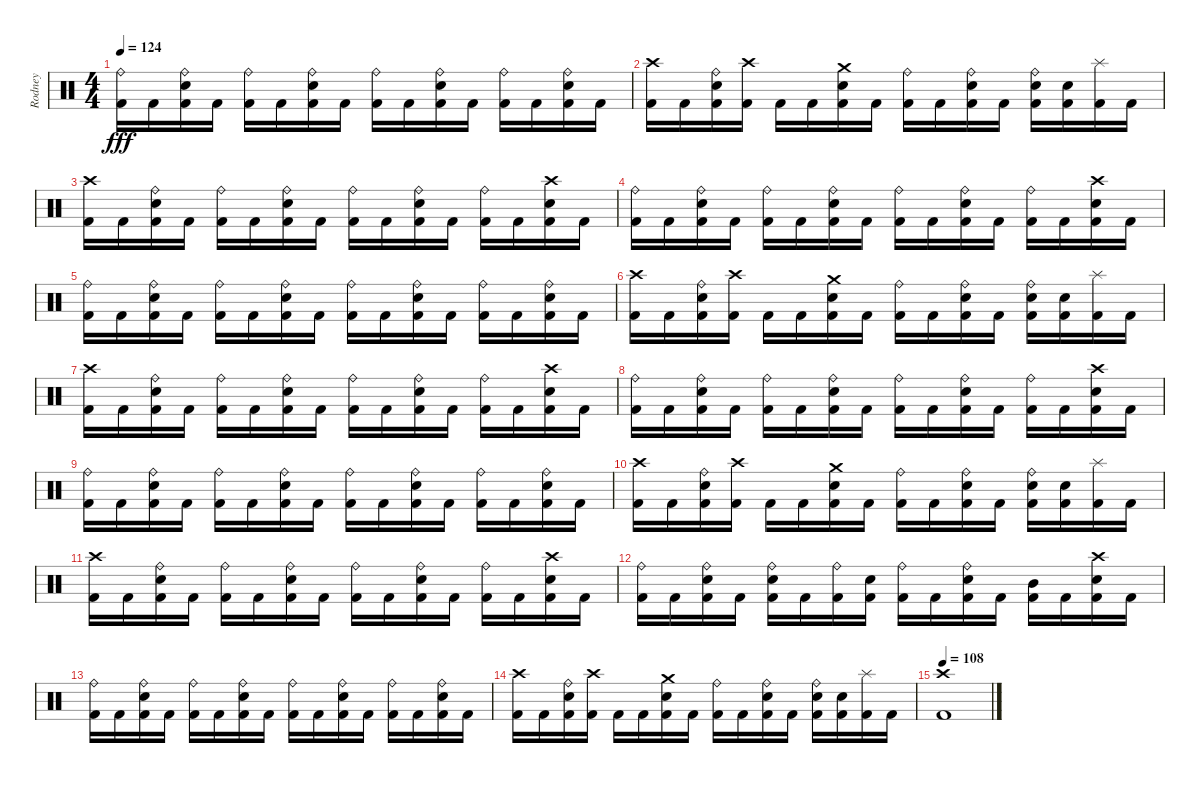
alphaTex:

\track ("Rodney" "Rodney") {instrument percussion}
\staff {score}
\articulation defaults
\ts (4 4)
\tempo 124
\clef neutral
\ks c
("Ride (bell)" "Kick (hit) 2").16{dy fff} "Kick (hit) 2".16 ("Ride (bell)" "Snare (hit) 2" "Kick (hit) 2").16 "Kick (hit) 2".16 ("Ride (bell)" "Kick (hit) 2").16 "Kick (hit) 2".16 ("Ride (bell)" "Snare (hit) 2" "Kick (hit) 2").16 "Kick (hit) 2".16 ("Ride (bell)" "Kick (hit) 2").16 "Kick (hit) 2".16 ("Ride (bell)" "Snare (hit) 2" "Kick (hit) 2").16 "Kick (hit) 2".16 ("Ride (bell)" "Kick (hit) 2").16 "Kick (hit) 2".16 ("Ride (bell)" "Snare (hit) 2" "Kick (hit) 2").16 "Kick (hit) 2".16 |
("Crash high (hit)" "Kick (hit) 2").16 "Kick (hit) 2".16 ("Ride (bell)" "Snare (hit) 2" "Kick (hit) 2").16 ("Crash high (hit)" "Kick (hit) 2").16 "Kick (hit) 2".16 "Kick (hit) 2".16 ("Crash medium (hit)" "Snare (hit) 2" "Kick (hit) 2").16 "Kick (hit) 2".16 ("Ride (bell)" "Kick (hit) 2").16 "Kick (hit) 2".16 ("Ride (bell)" "Snare (hit) 2" "Kick (hit) 2").16 "Kick (hit) 2".16 ("Ride (bell)" "Snare (hit) 2" "Kick (hit) 2").16 ("Snare (hit) 2" "Kick (hit) 2").16 ("Splash (hit)" "Kick (hit) 2").16 "Kick (hit) 2".16 |
("Crash high (hit)" "Kick (hit) 2").16 "Kick (hit) 2".16 ("Ride (bell)" "Snare (hit) 2" "Kick (hit) 2").16 "Kick (hit) 2".16 ("Ride (bell)" "Kick (hit) 2").16 "Kick (hit) 2".16 ("Ride (bell)" "Snare (hit) 2" "Kick (hit) 2").16 "Kick (hit) 2".16 ("Ride (bell)" "Kick (hit) 2").16 "Kick (hit) 2".16 ("Ride (bell)" "Snare (hit) 2" "Kick (hit) 2").16 "Kick (hit) 2".16 ("Ride (bell)" "Kick (hit) 2").16 "Kick (hit) 2".16 ("Crash high (hit)" "Snare (hit) 2" "Kick (hit) 2").16 "Kick (hit) 2".16 |
("Ride (bell)" "Kick (hit) 2").16 "Kick (hit) 2".16 ("Ride (bell)" "Snare (hit) 2" "Kick (hit) 2").16 "Kick (hit) 2".16 ("Ride (bell)" "Kick (hit) 2").16 "Kick (hit) 2".16 ("Ride (bell)" "Snare (hit) 2" "Kick (hit) 2").16 "Kick (hit) 2".16 ("Ride (bell)" "Kick (hit) 2").16 "Kick (hit) 2".16 ("Ride (bell)" "Snare (hit) 2" "Kick (hit) 2").16 "Kick (hit) 2".16 ("Ride (bell)" "Kick (hit) 2").16 "Kick (hit) 2".16 ("Crash high (hit)" "Snare (hit) 2" "Kick (hit) 2").16 "Kick (hit) 2".16 |
("Ride (bell)" "Kick (hit) 2").16 "Kick (hit) 2".16 ("Ride (bell)" "Snare (hit) 2" "Kick (hit) 2").16 "Kick (hit) 2".16 ("Ride (bell)" "Kick (hit) 2").16 "Kick (hit) 2".16 ("Ride (bell)" "Snare (hit) 2" "Kick (hit) 2").16 "Kick (hit) 2".16 ("Ride (bell)" "Kick (hit) 2").16 "Kick (hit) 2".16 ("Ride (bell)" "Snare (hit) 2" "Kick (hit) 2").16 "Kick (hit) 2".16 ("Ride (bell)" "Kick (hit) 2").16 "Kick (hit) 2".16 ("Ride (bell)" "Snare (hit) 2" "Kick (hit) 2").16 "Kick (hit) 2".16 |
("Crash high (hit)" "Kick (hit) 2").16 "Kick (hit) 2".16 ("Ride (bell)" "Snare (hit) 2" "Kick (hit) 2").16 ("Crash high (hit)" "Kick (hit) 2").16 "Kick (hit) 2".16 "Kick (hit) 2".16 ("Crash medium (hit)" "Snare (hit) 2" "Kick (hit) 2").16 "Kick (hit) 2".16 ("Ride (bell)" "Kick (hit) 2").16 "Kick (hit) 2".16 ("Ride (bell)" "Snare (hit) 2" "Kick (hit) 2").16 "Kick (hit) 2".16 ("Ride (bell)" "Snare (hit) 2" "Kick (hit) 2").16 ("Snare (hit) 2" "Kick (hit) 2").16 ("Splash (hit)" "Kick (hit) 2").16 "Kick (hit) 2".16 |
("Crash high (hit)" "Kick (hit) 2").16 "Kick (hit) 2".16 ("Ride (bell)" "Snare (hit) 2" "Kick (hit) 2").16 "Kick (hit) 2".16 ("Ride (bell)" "Kick (hit) 2").16 "Kick (hit) 2".16 ("Ride (bell)" "Snare (hit) 2" "Kick (hit) 2").16 "Kick (hit) 2".16 ("Ride (bell)" "Kick (hit) 2").16 "Kick (hit) 2".16 ("Ride (bell)" "Snare (hit) 2" "Kick (hit) 2").16 "Kick (hit) 2".16 ("Ride (bell)" "Kick (hit) 2").16 "Kick (hit) 2".16 ("Crash high (hit)" "Snare (hit) 2" "Kick (hit) 2").16 "Kick (hit) 2".16 |
("Ride (bell)" "Kick (hit) 2").16 "Kick (hit) 2".16 ("Ride (bell)" "Snare (hit) 2" "Kick (hit) 2").16 "Kick (hit) 2".16 ("Ride (bell)" "Kick (hit) 2").16 "Kick (hit) 2".16 ("Ride (bell)" "Snare (hit) 2" "Kick (hit) 2").16 "Kick (hit) 2".16 ("Ride (bell)" "Kick (hit) 2").16 "Kick (hit) 2".16 ("Ride (bell)" "Snare (hit) 2" "Kick (hit) 2").16 "Kick (hit) 2".16 ("Ride (bell)" "Kick (hit) 2").16 "Kick (hit) 2".16 ("Crash high (hit)" "Snare (hit) 2" "Kick (hit) 2").16 "Kick (hit) 2".16 |
("Ride (bell)" "Kick (hit) 2").16 "Kick (hit) 2".16 ("Ride (bell)" "Snare (hit) 2" "Kick (hit) 2").16 "Kick (hit) 2".16 ("Ride (bell)" "Kick (hit) 2").16 "Kick (hit) 2".16 ("Ride (bell)" "Snare (hit) 2" "Kick (hit) 2").16 "Kick (hit) 2".16 ("Ride (bell)" "Kick (hit) 2").16 "Kick (hit) 2".16 ("Ride (bell)" "Snare (hit) 2" "Kick (hit) 2").16 "Kick (hit) 2".16 ("Ride (bell)" "Kick (hit) 2").16 "Kick (hit) 2".16 ("Ride (bell)" "Snare (hit) 2" "Kick (hit) 2").16 "Kick (hit) 2".16 |
("Crash high (hit)" "Kick (hit) 2").16 "Kick (hit) 2".16 ("Ride (bell)" "Snare (hit) 2" "Kick (hit) 2").16 ("Crash high (hit)" "Kick (hit) 2").16 "Kick (hit) 2".16 "Kick (hit) 2".16 ("Crash medium (hit)" "Snare (hit) 2" "Kick (hit) 2").16 "Kick (hit) 2".16 ("Ride (bell)" "Kick (hit) 2").16 "Kick (hit) 2".16 ("Ride (bell)" "Snare (hit) 2" "Kick (hit) 2").16 "Kick (hit) 2".16 ("Ride (bell)" "Snare (hit) 2" "Kick (hit) 2").16 ("Snare (hit) 2" "Kick (hit) 2").16 ("Splash (hit)" "Kick (hit) 2").16 "Kick (hit) 2".16 |
("Crash high (hit)" "Kick (hit) 2").16 "Kick (hit) 2".16 ("Ride (bell)" "Snare (hit) 2" "Kick (hit) 2").16 "Kick (hit) 2".16 ("Ride (bell)" "Kick (hit) 2").16 "Kick (hit) 2".16 ("Ride (bell)" "Snare (hit) 2" "Kick (hit) 2").16 "Kick (hit) 2".16 ("Ride (bell)" "Kick (hit) 2").16 "Kick (hit) 2".16 ("Ride (bell)" "Snare (hit) 2" "Kick (hit) 2").16 "Kick (hit) 2".16 ("Ride (bell)" "Kick (hit) 2").16 "Kick (hit) 2".16 ("Crash high (hit)" "Snare (hit) 2" "Kick (hit) 2").16 "Kick (hit) 2".16 |
("Ride (bell)" "Kick (hit) 2").16 "Kick (hit) 2".16 ("Ride (bell)" "Snare (hit) 2" "Kick (hit) 2").16 "Kick (hit) 2".16 ("Ride (bell)" "Snare (hit) 2" "Kick (hit) 2").16 "Kick (hit) 2".16 ("Ride (bell)" "Kick (hit) 2").16 ("Snare (hit) 2" "Kick (hit) 2").16 ("Ride (bell)" "Kick (hit) 2").16 "Kick (hit) 2".16 ("Ride (bell)" "Snare (hit) 2" "Kick (hit) 2").16 "Kick (hit) 2".16 ("Mid Tom (hit)" "Kick (hit) 2").16 "Kick (hit) 2".16 ("Crash high (hit)" "Snare (hit) 2" "Kick (hit) 2").16 "Kick (hit) 2".16 |
("Ride (bell)" "Kick (hit) 2").16 "Kick (hit) 2".16 ("Ride (bell)" "Snare (hit) 2" "Kick (hit) 2").16 "Kick (hit) 2".16 ("Ride (bell)" "Kick (hit) 2").16 "Kick (hit) 2".16 ("Ride (bell)" "Snare (hit) 2" "Kick (hit) 2").16 "Kick (hit) 2".16 ("Ride (bell)" "Kick (hit) 2").16 "Kick (hit) 2".16 ("Ride (bell)" "Snare (hit) 2" "Kick (hit) 2").16 "Kick (hit) 2".16 ("Ride (bell)" "Kick (hit) 2").16 "Kick (hit) 2".16 ("Ride (bell)" "Snare (hit) 2" "Kick (hit) 2").16 "Kick (hit) 2".16 |
("Crash high (hit)" "Kick (hit) 2").16 "Kick (hit) 2".16 ("Ride (bell)" "Snare (hit) 2" "Kick (hit) 2").16 ("Crash high (hit)" "Kick (hit) 2").16 "Kick (hit) 2".16 "Kick (hit) 2".16 ("Crash medium (hit)" "Snare (hit) 2" "Kick (hit) 2").16 "Kick (hit) 2".16 ("Ride (bell)" "Kick (hit) 2").16 "Kick (hit) 2".16 ("Ride (bell)" "Snare (hit) 2" "Kick (hit) 2").16 "Kick (hit) 2".16 ("Ride (bell)" "Snare (hit) 2" "Kick (hit) 2").16 ("Snare (hit) 2" "Kick (hit) 2").16 ("Splash (hit)" "Kick (hit) 2").16 "Kick (hit) 2".16 |
\tempo 108
("Crash high (hit)" "Kick (hit) 2").1
